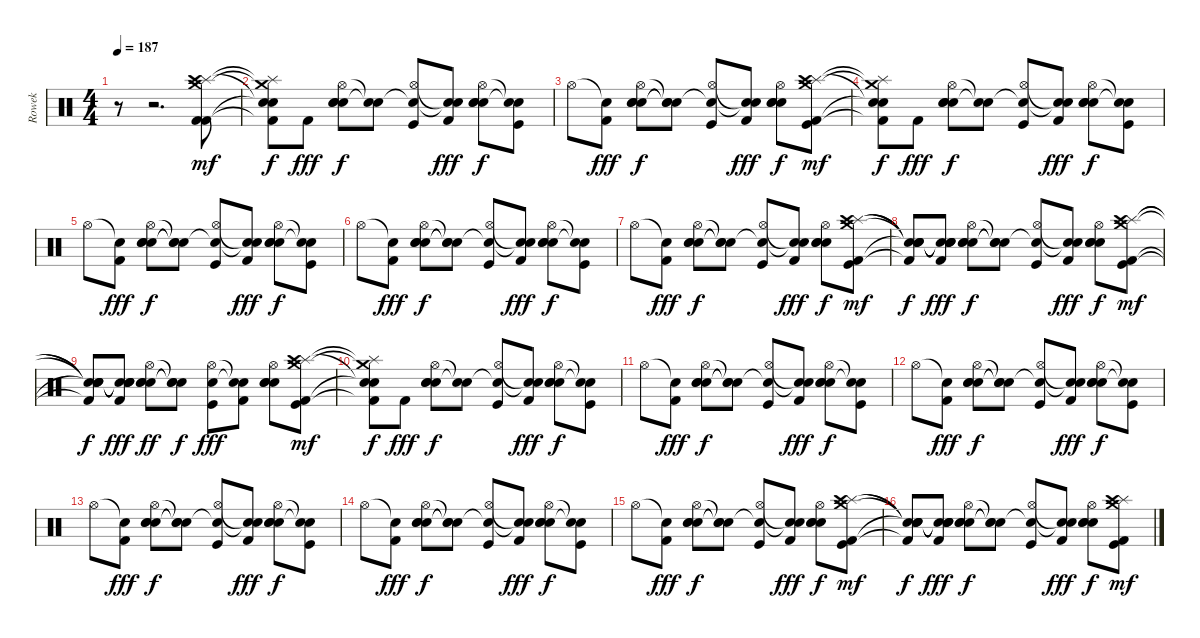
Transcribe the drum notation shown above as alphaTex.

\track ("Rowek" "Rowek") {instrument percussion}
\staff {score}
\articulation defaults
\ts (4 4)
\tempo 187
\clef neutral
\ks c
r.8{dy f} r.2{d} ("Crash medium (hit)" "Splash (hit)" "Crash high (hit)" "Kick (hit) 2" "Kick (hit) 2").8{dy mf} |
("Crash medium (hit)"{t} "Splash (hit)"{t} "Snare (hit)"{t} "Snare (hit)"{t} "Kick (hit) 2"{t}).8{dy f} "Kick (hit) 2".8{dy fff} ("Hi-Hat (open)" "Electric Snare (hit)" "Electric Snare (hit)" "Electric Snare (hit)").8{dy f} ("Snare (hit)"{t} "Snare (hit)"{t}).8 ("Hi-Hat (open)" "Snare (hit)"{t} "Kick (hit)").8 ("Snare (hit)"{t} "Snare (hit)"{t} "Kick (hit) 2").8{dy fff} ("Hi-Hat (open)" "Electric Snare (hit)" "Electric Snare (hit)" "Electric Snare (hit)").8{dy f} ("Snare (hit)"{t} "Snare (hit)"{t} "Kick (hit)").8 |
"Hi-Hat (open)".8 ("Snare (hit)"{t} "Kick (hit) 2").8{dy fff} ("Hi-Hat (open)" "Electric Snare (hit)" "Electric Snare (hit)" "Electric Snare (hit)").8{dy f} ("Snare (hit)"{t} "Snare (hit)"{t} "Snare (hit)"{t}).8 ("Hi-Hat (open)" "Snare (hit)"{t} "Kick (hit)").8 ("Snare (hit)"{t} "Snare (hit)"{t} "Kick (hit) 2").8{dy fff} ("Hi-Hat (open)" "Electric Snare (hit)" "Electric Snare (hit)" "Electric Snare (hit)").8{dy f} ("Crash medium (hit)" "Splash (hit)" "Crash high (hit)" "Kick (hit) 2" "Kick (hit)").8{dy mf} |
("Crash medium (hit)"{t} "Splash (hit)"{t} "Snare (hit)"{t} "Snare (hit)"{t} "Kick (hit) 2"{t}).8{dy f} "Kick (hit) 2".8{dy fff} ("Hi-Hat (open)" "Electric Snare (hit)" "Electric Snare (hit)" "Electric Snare (hit)").8{dy f} ("Snare (hit)"{t} "Snare (hit)"{t}).8 ("Hi-Hat (open)" "Snare (hit)"{t} "Kick (hit)").8 ("Snare (hit)"{t} "Snare (hit)"{t} "Kick (hit) 2").8{dy fff} ("Hi-Hat (open)" "Electric Snare (hit)" "Electric Snare (hit)" "Electric Snare (hit)").8{dy f} ("Snare (hit)"{t} "Snare (hit)"{t} "Kick (hit)").8 |
"Hi-Hat (open)".8 ("Snare (hit)"{t} "Kick (hit) 2").8{dy fff} ("Hi-Hat (open)" "Electric Snare (hit)" "Electric Snare (hit)" "Electric Snare (hit)").8{dy f} ("Snare (hit)"{t} "Snare (hit)"{t} "Snare (hit)"{t}).8 ("Hi-Hat (open)" "Snare (hit)"{t} "Kick (hit)").8 ("Snare (hit)"{t} "Snare (hit)"{t} "Kick (hit) 2").8{dy fff} ("Hi-Hat (open)" "Electric Snare (hit)" "Electric Snare (hit)" "Electric Snare (hit)").8{dy f} ("Snare (hit)"{t} "Snare (hit)"{t} "Kick (hit)").8 |
"Hi-Hat (open)".8 ("Snare (hit)"{t} "Kick (hit) 2").8{dy fff} ("Hi-Hat (open)" "Electric Snare (hit)" "Electric Snare (hit)" "Electric Snare (hit)").8{dy f} ("Snare (hit)"{t} "Snare (hit)"{t} "Snare (hit)"{t}).8 ("Hi-Hat (open)" "Snare (hit)"{t} "Kick (hit)").8 ("Snare (hit)"{t} "Snare (hit)"{t} "Kick (hit) 2").8{dy fff} ("Hi-Hat (open)" "Electric Snare (hit)" "Electric Snare (hit)" "Electric Snare (hit)").8{dy f} ("Snare (hit)"{t} "Snare (hit)"{t} "Kick (hit)").8 |
"Hi-Hat (open)".8 ("Snare (hit)"{t} "Kick (hit) 2").8{dy fff} ("Hi-Hat (open)" "Electric Snare (hit)" "Electric Snare (hit)" "Electric Snare (hit)").8{dy f} ("Snare (hit)"{t} "Snare (hit)"{t} "Snare (hit)"{t}).8 ("Hi-Hat (open)" "Snare (hit)"{t} "Kick (hit)").8 ("Snare (hit)"{t} "Snare (hit)"{t} "Kick (hit) 2").8{dy fff} ("Hi-Hat (open)" "Electric Snare (hit)" "Electric Snare (hit)" "Electric Snare (hit)").8{dy f} ("Crash medium (hit)" "Splash (hit)" "Crash high (hit)" "Kick (hit) 2" "Kick (hit)").8{dy mf} |
("Snare (hit)"{t} "Snare (hit)"{t} "Snare (hit)"{t} "Snare (hit)"{t} "Kick (hit) 2"{t}).8{dy f} ("Snare (hit)"{t} "Snare (hit)"{t} "Snare (hit)"{t} "Snare (hit)"{t} "Kick (hit) 2").8{dy fff} ("Hi-Hat (open)" "Electric Snare (hit)" "Electric Snare (hit)" "Electric Snare (hit)").8{dy f} ("Snare (hit)"{t} "Snare (hit)"{t} "Snare (hit)"{t}).8 ("Hi-Hat (open)" "Snare (hit)"{t} "Kick (hit)").8 ("Snare (hit)"{t} "Snare (hit)"{t} "Kick (hit) 2").8{dy fff} ("Hi-Hat (open)" "Electric Snare (hit)" "Electric Snare (hit)" "Electric Snare (hit)").8{dy f} ("Crash medium (hit)" "Splash (hit)" "Crash high (hit)" "Kick (hit) 2" "Kick (hit)").8{dy mf} |
("Snare (hit)"{t} "Snare (hit)"{t} "Snare (hit)"{t} "Snare (hit)"{t} "Kick (hit) 2"{t}).8{dy f} ("Snare (hit)"{t} "Snare (hit)"{t} "Snare (hit)"{t} "Snare (hit)"{t} "Kick (hit) 2").8{dy fff} ("Hi-Hat (open)" "Electric Snare (hit)" "Electric Snare (hit)" "Electric Snare (hit)").8{dy ff} ("Snare (hit)"{t} "Snare (hit)"{t} "Snare (hit)"{t}).8{dy f} ("Hi-Hat (open)" "Electric Snare (hit)" "Kick (hit)").8{dy fff} ("Snare (hit)"{t} "Snare (hit)"{t} "Kick (hit) 2").8 ("Hi-Hat (open)" "Electric Snare (hit)" "Electric Snare (hit)" "Electric Snare (hit)").8 ("Crash medium (hit)" "Splash (hit)" "Crash high (hit)" "Kick (hit) 2" "Kick (hit)").8{dy mf} |
("Crash medium (hit)"{t} "Splash (hit)"{t} "Snare (hit)"{t} "Snare (hit)"{t} "Kick (hit) 2"{t}).8{dy f} "Kick (hit) 2".8{dy fff} ("Hi-Hat (open)" "Electric Snare (hit)" "Electric Snare (hit)" "Electric Snare (hit)").8{dy f} ("Snare (hit)"{t} "Snare (hit)"{t}).8 ("Hi-Hat (open)" "Snare (hit)"{t} "Kick (hit)").8 ("Snare (hit)"{t} "Snare (hit)"{t} "Kick (hit) 2").8{dy fff} ("Hi-Hat (open)" "Electric Snare (hit)" "Electric Snare (hit)" "Electric Snare (hit)").8{dy f} ("Snare (hit)"{t} "Snare (hit)"{t} "Kick (hit)").8 |
"Hi-Hat (open)".8 ("Snare (hit)"{t} "Kick (hit) 2").8{dy fff} ("Hi-Hat (open)" "Electric Snare (hit)" "Electric Snare (hit)" "Electric Snare (hit)").8{dy f} ("Snare (hit)"{t} "Snare (hit)"{t} "Snare (hit)"{t}).8 ("Hi-Hat (open)" "Snare (hit)"{t} "Kick (hit)").8 ("Snare (hit)"{t} "Snare (hit)"{t} "Kick (hit) 2").8{dy fff} ("Hi-Hat (open)" "Electric Snare (hit)" "Electric Snare (hit)" "Electric Snare (hit)").8{dy f} ("Snare (hit)"{t} "Snare (hit)"{t} "Kick (hit)").8 |
"Hi-Hat (open)".8 ("Snare (hit)"{t} "Kick (hit) 2").8{dy fff} ("Hi-Hat (open)" "Electric Snare (hit)" "Electric Snare (hit)" "Electric Snare (hit)").8{dy f} ("Snare (hit)"{t} "Snare (hit)"{t} "Snare (hit)"{t}).8 ("Hi-Hat (open)" "Snare (hit)"{t} "Kick (hit)").8 ("Snare (hit)"{t} "Snare (hit)"{t} "Kick (hit) 2").8{dy fff} ("Hi-Hat (open)" "Electric Snare (hit)" "Electric Snare (hit)" "Electric Snare (hit)").8{dy f} ("Snare (hit)"{t} "Snare (hit)"{t} "Kick (hit)").8 |
"Hi-Hat (open)".8 ("Snare (hit)"{t} "Kick (hit) 2").8{dy fff} ("Hi-Hat (open)" "Electric Snare (hit)" "Electric Snare (hit)" "Electric Snare (hit)").8{dy f} ("Snare (hit)"{t} "Snare (hit)"{t} "Snare (hit)"{t}).8 ("Hi-Hat (open)" "Snare (hit)"{t} "Kick (hit)").8 ("Snare (hit)"{t} "Snare (hit)"{t} "Kick (hit) 2").8{dy fff} ("Hi-Hat (open)" "Electric Snare (hit)" "Electric Snare (hit)" "Electric Snare (hit)").8{dy f} ("Snare (hit)"{t} "Snare (hit)"{t} "Kick (hit)").8 |
"Hi-Hat (open)".8 ("Snare (hit)"{t} "Kick (hit) 2").8{dy fff} ("Hi-Hat (open)" "Electric Snare (hit)" "Electric Snare (hit)" "Electric Snare (hit)").8{dy f} ("Snare (hit)"{t} "Snare (hit)"{t} "Snare (hit)"{t}).8 ("Hi-Hat (open)" "Snare (hit)"{t} "Kick (hit)").8 ("Snare (hit)"{t} "Snare (hit)"{t} "Kick (hit) 2").8{dy fff} ("Hi-Hat (open)" "Electric Snare (hit)" "Electric Snare (hit)" "Electric Snare (hit)").8{dy f} ("Snare (hit)"{t} "Snare (hit)"{t} "Kick (hit)").8 |
"Hi-Hat (open)".8 ("Snare (hit)"{t} "Kick (hit) 2").8{dy fff} ("Hi-Hat (open)" "Electric Snare (hit)" "Electric Snare (hit)" "Electric Snare (hit)").8{dy f} ("Snare (hit)"{t} "Snare (hit)"{t} "Snare (hit)"{t}).8 ("Hi-Hat (open)" "Snare (hit)"{t} "Kick (hit)").8 ("Snare (hit)"{t} "Snare (hit)"{t} "Kick (hit) 2").8{dy fff} ("Hi-Hat (open)" "Electric Snare (hit)" "Electric Snare (hit)" "Electric Snare (hit)").8{dy f} ("Crash medium (hit)" "Splash (hit)" "Crash high (hit)" "Kick (hit) 2" "Kick (hit)").8{dy mf} |
("Snare (hit)"{t} "Snare (hit)"{t} "Snare (hit)"{t} "Snare (hit)"{t} "Kick (hit) 2"{t}).8{dy f} ("Snare (hit)"{t} "Snare (hit)"{t} "Snare (hit)"{t} "Snare (hit)"{t} "Kick (hit) 2").8{dy fff} ("Hi-Hat (open)" "Electric Snare (hit)" "Electric Snare (hit)" "Electric Snare (hit)").8{dy f} ("Snare (hit)"{t} "Snare (hit)"{t} "Snare (hit)"{t}).8 ("Hi-Hat (open)" "Snare (hit)"{t} "Kick (hit)").8 ("Snare (hit)"{t} "Snare (hit)"{t} "Kick (hit) 2").8{dy fff} ("Hi-Hat (open)" "Electric Snare (hit)" "Electric Snare (hit)" "Electric Snare (hit)").8{dy f} ("Crash medium (hit)" "Splash (hit)" "Crash high (hit)" "Kick (hit) 2" "Kick (hit)").8{dy mf}
